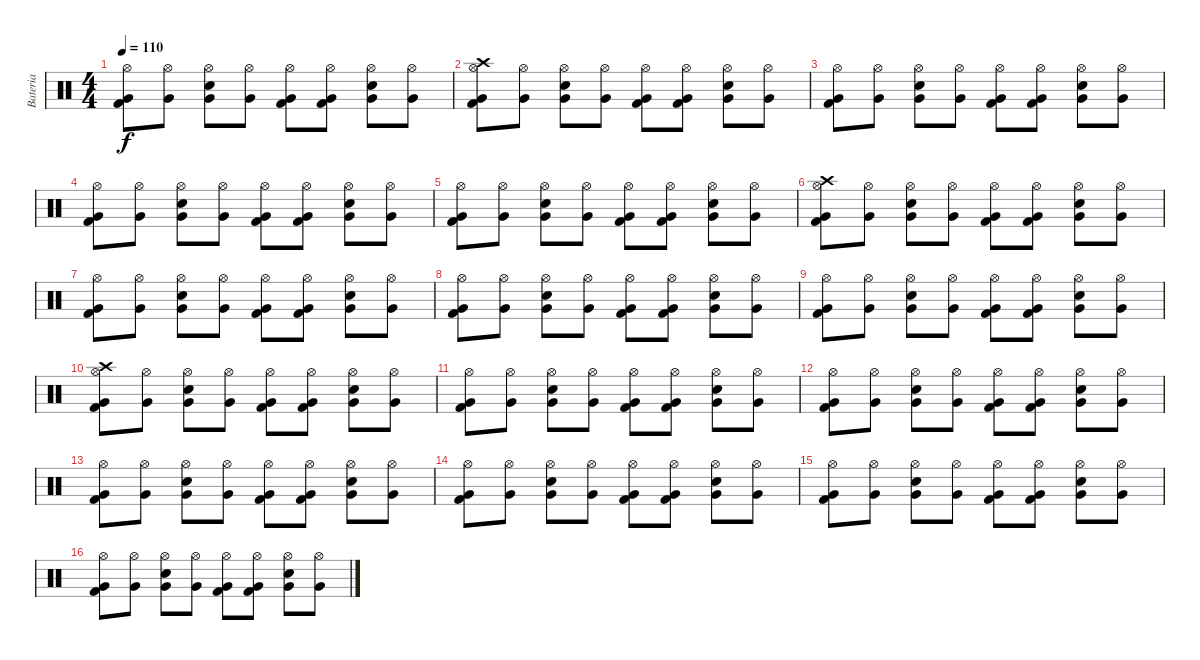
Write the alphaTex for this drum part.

\track ("Bateria" "Bateria") {instrument percussion}
\staff {score}
\articulation defaults
\ts (4 4)
\tempo 110
\clef neutral
\ks c
("Hi-Hat (open)" "Very Low Tom (hit)" "Kick (hit) 2").8{dy f} ("Hi-Hat (open)" "Very Low Tom (hit)").8 ("Electric Snare (hit)" "Hi-Hat (open)" "Very Low Tom (hit)").8 ("Hi-Hat (open)" "Very Low Tom (hit)").8 ("Hi-Hat (open)" "Very Low Tom (hit)" "Kick (hit) 2").8 ("Hi-Hat (open)" "Very Low Tom (hit)" "Kick (hit) 2").8 ("Electric Snare (hit)" "Hi-Hat (open)" "Very Low Tom (hit)").8 ("Hi-Hat (open)" "Very Low Tom (hit)").8 |
("Crash high (hit)" "Hi-Hat (open)" "Very Low Tom (hit)" "Kick (hit) 2").8 ("Hi-Hat (open)" "Very Low Tom (hit)").8 ("Electric Snare (hit)" "Hi-Hat (open)" "Very Low Tom (hit)").8 ("Hi-Hat (open)" "Very Low Tom (hit)").8 ("Hi-Hat (open)" "Very Low Tom (hit)" "Kick (hit) 2").8 ("Hi-Hat (open)" "Very Low Tom (hit)" "Kick (hit) 2").8 ("Electric Snare (hit)" "Hi-Hat (open)" "Very Low Tom (hit)").8 ("Hi-Hat (open)" "Very Low Tom (hit)").8 |
("Hi-Hat (open)" "Very Low Tom (hit)" "Kick (hit) 2").8 ("Hi-Hat (open)" "Very Low Tom (hit)").8 ("Electric Snare (hit)" "Hi-Hat (open)" "Very Low Tom (hit)").8 ("Hi-Hat (open)" "Very Low Tom (hit)").8 ("Hi-Hat (open)" "Very Low Tom (hit)" "Kick (hit) 2").8 ("Hi-Hat (open)" "Very Low Tom (hit)" "Kick (hit) 2").8 ("Electric Snare (hit)" "Hi-Hat (open)" "Very Low Tom (hit)").8 ("Hi-Hat (open)" "Very Low Tom (hit)").8 |
("Hi-Hat (open)" "Very Low Tom (hit)" "Kick (hit) 2").8 ("Hi-Hat (open)" "Very Low Tom (hit)").8 ("Electric Snare (hit)" "Hi-Hat (open)" "Very Low Tom (hit)").8 ("Hi-Hat (open)" "Very Low Tom (hit)").8 ("Hi-Hat (open)" "Very Low Tom (hit)" "Kick (hit) 2").8 ("Hi-Hat (open)" "Very Low Tom (hit)" "Kick (hit) 2").8 ("Electric Snare (hit)" "Hi-Hat (open)" "Very Low Tom (hit)").8 ("Hi-Hat (open)" "Very Low Tom (hit)").8 |
("Hi-Hat (open)" "Very Low Tom (hit)" "Kick (hit) 2").8 ("Hi-Hat (open)" "Very Low Tom (hit)").8 ("Electric Snare (hit)" "Hi-Hat (open)" "Very Low Tom (hit)").8 ("Hi-Hat (open)" "Very Low Tom (hit)").8 ("Hi-Hat (open)" "Very Low Tom (hit)" "Kick (hit) 2").8 ("Hi-Hat (open)" "Very Low Tom (hit)" "Kick (hit) 2").8 ("Electric Snare (hit)" "Hi-Hat (open)" "Very Low Tom (hit)").8 ("Hi-Hat (open)" "Very Low Tom (hit)").8 |
("Crash high (hit)" "Hi-Hat (open)" "Very Low Tom (hit)" "Kick (hit) 2").8 ("Hi-Hat (open)" "Very Low Tom (hit)").8 ("Electric Snare (hit)" "Hi-Hat (open)" "Very Low Tom (hit)").8 ("Hi-Hat (open)" "Very Low Tom (hit)").8 ("Hi-Hat (open)" "Very Low Tom (hit)" "Kick (hit) 2").8 ("Hi-Hat (open)" "Very Low Tom (hit)" "Kick (hit) 2").8 ("Electric Snare (hit)" "Hi-Hat (open)" "Very Low Tom (hit)").8 ("Hi-Hat (open)" "Very Low Tom (hit)").8 |
("Hi-Hat (open)" "Very Low Tom (hit)" "Kick (hit) 2").8 ("Hi-Hat (open)" "Very Low Tom (hit)").8 ("Electric Snare (hit)" "Hi-Hat (open)" "Very Low Tom (hit)").8 ("Hi-Hat (open)" "Very Low Tom (hit)").8 ("Hi-Hat (open)" "Very Low Tom (hit)" "Kick (hit) 2").8 ("Hi-Hat (open)" "Very Low Tom (hit)" "Kick (hit) 2").8 ("Electric Snare (hit)" "Hi-Hat (open)" "Very Low Tom (hit)").8 ("Hi-Hat (open)" "Very Low Tom (hit)").8 |
("Hi-Hat (open)" "Very Low Tom (hit)" "Kick (hit) 2").8 ("Hi-Hat (open)" "Very Low Tom (hit)").8 ("Electric Snare (hit)" "Hi-Hat (open)" "Very Low Tom (hit)").8 ("Hi-Hat (open)" "Very Low Tom (hit)").8 ("Hi-Hat (open)" "Very Low Tom (hit)" "Kick (hit) 2").8 ("Hi-Hat (open)" "Very Low Tom (hit)" "Kick (hit) 2").8 ("Electric Snare (hit)" "Hi-Hat (open)" "Very Low Tom (hit)").8 ("Hi-Hat (open)" "Very Low Tom (hit)").8 |
("Hi-Hat (open)" "Very Low Tom (hit)" "Kick (hit) 2").8 ("Hi-Hat (open)" "Very Low Tom (hit)").8 ("Electric Snare (hit)" "Hi-Hat (open)" "Very Low Tom (hit)").8 ("Hi-Hat (open)" "Very Low Tom (hit)").8 ("Hi-Hat (open)" "Very Low Tom (hit)" "Kick (hit) 2").8 ("Hi-Hat (open)" "Very Low Tom (hit)" "Kick (hit) 2").8 ("Electric Snare (hit)" "Hi-Hat (open)" "Very Low Tom (hit)").8 ("Hi-Hat (open)" "Very Low Tom (hit)").8 |
("Crash high (hit)" "Hi-Hat (open)" "Very Low Tom (hit)" "Kick (hit) 2").8 ("Hi-Hat (open)" "Very Low Tom (hit)").8 ("Electric Snare (hit)" "Hi-Hat (open)" "Very Low Tom (hit)").8 ("Hi-Hat (open)" "Very Low Tom (hit)").8 ("Hi-Hat (open)" "Very Low Tom (hit)" "Kick (hit) 2").8 ("Hi-Hat (open)" "Very Low Tom (hit)" "Kick (hit) 2").8 ("Electric Snare (hit)" "Hi-Hat (open)" "Very Low Tom (hit)").8 ("Hi-Hat (open)" "Very Low Tom (hit)").8 |
("Hi-Hat (open)" "Very Low Tom (hit)" "Kick (hit) 2").8 ("Hi-Hat (open)" "Very Low Tom (hit)").8 ("Electric Snare (hit)" "Hi-Hat (open)" "Very Low Tom (hit)").8 ("Hi-Hat (open)" "Very Low Tom (hit)").8 ("Hi-Hat (open)" "Very Low Tom (hit)" "Kick (hit) 2").8 ("Hi-Hat (open)" "Very Low Tom (hit)" "Kick (hit) 2").8 ("Electric Snare (hit)" "Hi-Hat (open)" "Very Low Tom (hit)").8 ("Hi-Hat (open)" "Very Low Tom (hit)").8 |
("Hi-Hat (open)" "Very Low Tom (hit)" "Kick (hit) 2").8 ("Hi-Hat (open)" "Very Low Tom (hit)").8 ("Electric Snare (hit)" "Hi-Hat (open)" "Very Low Tom (hit)").8 ("Hi-Hat (open)" "Very Low Tom (hit)").8 ("Hi-Hat (open)" "Very Low Tom (hit)" "Kick (hit) 2").8 ("Hi-Hat (open)" "Very Low Tom (hit)" "Kick (hit) 2").8 ("Electric Snare (hit)" "Hi-Hat (open)" "Very Low Tom (hit)").8 ("Hi-Hat (open)" "Very Low Tom (hit)").8 |
("Hi-Hat (open)" "Very Low Tom (hit)" "Kick (hit) 2").8 ("Hi-Hat (open)" "Very Low Tom (hit)").8 ("Electric Snare (hit)" "Hi-Hat (open)" "Very Low Tom (hit)").8 ("Hi-Hat (open)" "Very Low Tom (hit)").8 ("Hi-Hat (open)" "Very Low Tom (hit)" "Kick (hit) 2").8 ("Hi-Hat (open)" "Very Low Tom (hit)" "Kick (hit) 2").8 ("Electric Snare (hit)" "Hi-Hat (open)" "Very Low Tom (hit)").8 ("Hi-Hat (open)" "Very Low Tom (hit)").8 |
("Hi-Hat (open)" "Very Low Tom (hit)" "Kick (hit) 2").8 ("Hi-Hat (open)" "Very Low Tom (hit)").8 ("Electric Snare (hit)" "Hi-Hat (open)" "Very Low Tom (hit)").8 ("Hi-Hat (open)" "Very Low Tom (hit)").8 ("Hi-Hat (open)" "Very Low Tom (hit)" "Kick (hit) 2").8 ("Hi-Hat (open)" "Very Low Tom (hit)" "Kick (hit) 2").8 ("Electric Snare (hit)" "Hi-Hat (open)" "Very Low Tom (hit)").8 ("Hi-Hat (open)" "Very Low Tom (hit)").8 |
("Hi-Hat (open)" "Very Low Tom (hit)" "Kick (hit) 2").8 ("Hi-Hat (open)" "Very Low Tom (hit)").8 ("Electric Snare (hit)" "Hi-Hat (open)" "Very Low Tom (hit)").8 ("Hi-Hat (open)" "Very Low Tom (hit)").8 ("Hi-Hat (open)" "Very Low Tom (hit)" "Kick (hit) 2").8 ("Hi-Hat (open)" "Very Low Tom (hit)" "Kick (hit) 2").8 ("Electric Snare (hit)" "Hi-Hat (open)" "Very Low Tom (hit)").8 ("Hi-Hat (open)" "Very Low Tom (hit)").8 |
("Hi-Hat (open)" "Very Low Tom (hit)" "Kick (hit) 2").8 ("Hi-Hat (open)" "Very Low Tom (hit)").8 ("Electric Snare (hit)" "Hi-Hat (open)" "Very Low Tom (hit)").8 ("Hi-Hat (open)" "Very Low Tom (hit)").8 ("Hi-Hat (open)" "Very Low Tom (hit)" "Kick (hit) 2").8 ("Hi-Hat (open)" "Very Low Tom (hit)" "Kick (hit) 2").8 ("Electric Snare (hit)" "Hi-Hat (open)" "Very Low Tom (hit)").8 ("Hi-Hat (open)" "Very Low Tom (hit)").8
